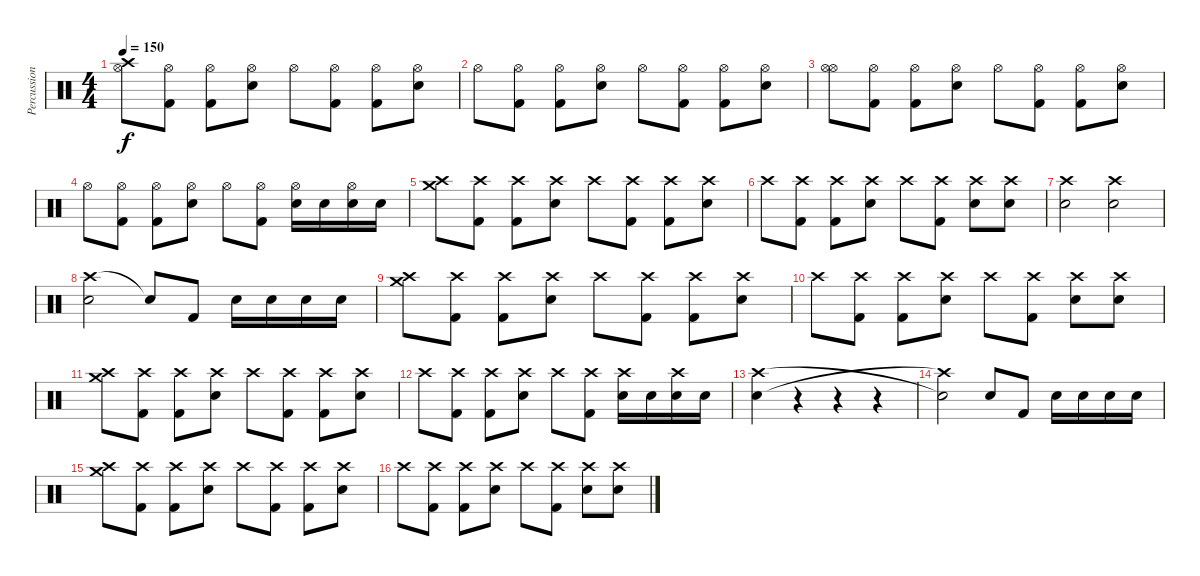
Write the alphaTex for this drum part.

\track ("Percussioni" "Percussion") {instrument percussion}
\staff {score}
\articulation defaults
\ts (4 4)
\tempo 150
\clef neutral
\ks c
("Hi-Hat (open)" "Crash high (hit)").8{dy f} ("Hi-Hat (open)" "Kick (hit) 2").8 ("Hi-Hat (open)" "Kick (hit) 2").8 ("Hi-Hat (open)" "Snare (hit) 2").8 "Hi-Hat (open)".8 ("Hi-Hat (open)" "Kick (hit) 2").8 ("Hi-Hat (open)" "Kick (hit) 2").8 ("Hi-Hat (open)" "Snare (hit) 2").8 |
"Hi-Hat (open)".8 ("Hi-Hat (open)" "Kick (hit) 2").8 ("Hi-Hat (open)" "Kick (hit) 2").8 ("Hi-Hat (open)" "Snare (hit) 2").8 "Hi-Hat (open)".8 ("Hi-Hat (open)" "Kick (hit) 2").8 ("Hi-Hat (open)" "Kick (hit) 2").8 ("Hi-Hat (open)" "Snare (hit) 2").8 |
("Hi-Hat (open)" "Hi-Hat (open)").8 ("Hi-Hat (open)" "Kick (hit) 2").8 ("Hi-Hat (open)" "Kick (hit) 2").8 ("Hi-Hat (open)" "Snare (hit) 2").8 "Hi-Hat (open)".8 ("Hi-Hat (open)" "Kick (hit) 2").8 ("Hi-Hat (open)" "Kick (hit) 2").8 ("Hi-Hat (open)" "Snare (hit) 2").8 |
"Hi-Hat (open)".8 ("Hi-Hat (open)" "Kick (hit) 2").8 ("Hi-Hat (open)" "Kick (hit) 2").8 ("Hi-Hat (open)" "Snare (hit) 2").8 "Hi-Hat (open)".8 ("Hi-Hat (open)" "Kick (hit) 2").8 ("Hi-Hat (open)" "Snare (hit) 2").16 "Snare (hit) 2".16 ("Hi-Hat (open)" "Snare (hit) 2").16 "Snare (hit) 2".16 |
("Crash high (hit)" "Crash medium (hit)").8 ("Crash high (hit)" "Kick (hit) 2").8 ("Crash high (hit)" "Kick (hit) 2").8 ("Crash high (hit)" "Snare (hit) 2").8 "Crash high (hit)".8 ("Crash high (hit)" "Kick (hit) 2").8 ("Crash high (hit)" "Kick (hit) 2").8 ("Crash high (hit)" "Snare (hit) 2").8 |
"Crash high (hit)".8 ("Crash high (hit)" "Kick (hit) 2").8 ("Crash high (hit)" "Kick (hit) 2").8 ("Crash high (hit)" "Snare (hit) 2").8 "Crash high (hit)".8 ("Crash high (hit)" "Kick (hit) 2").8 ("Crash high (hit)" "Snare (hit) 2").8 ("Crash high (hit)" "Snare (hit) 2").8 |
("Crash high (hit)" "Snare (hit) 2").2 ("Crash high (hit)" "Snare (hit) 2").2 |
("Crash high (hit)" "Snare (hit) 2").2 "Snare (hit)"{t}.8 "Kick (hit) 2".8 "Snare (hit) 2".16 "Snare (hit) 2".16 "Snare (hit) 2".16 "Snare (hit) 2".16 |
("Crash high (hit)" "Crash medium (hit)").8 ("Crash high (hit)" "Kick (hit) 2").8 ("Crash high (hit)" "Kick (hit) 2").8 ("Crash high (hit)" "Snare (hit) 2").8 "Crash high (hit)".8 ("Crash high (hit)" "Kick (hit) 2").8 ("Crash high (hit)" "Kick (hit) 2").8 ("Crash high (hit)" "Snare (hit) 2").8 |
"Crash high (hit)".8 ("Crash high (hit)" "Kick (hit) 2").8 ("Crash high (hit)" "Kick (hit) 2").8 ("Crash high (hit)" "Snare (hit) 2").8 "Crash high (hit)".8 ("Crash high (hit)" "Kick (hit) 2").8 ("Crash high (hit)" "Snare (hit) 2").8 ("Crash high (hit)" "Snare (hit) 2").8 |
("Crash high (hit)" "Crash medium (hit)").8 ("Crash high (hit)" "Kick (hit) 2").8 ("Crash high (hit)" "Kick (hit) 2").8 ("Crash high (hit)" "Snare (hit) 2").8 "Crash high (hit)".8 ("Crash high (hit)" "Kick (hit) 2").8 ("Crash high (hit)" "Kick (hit) 2").8 ("Crash high (hit)" "Snare (hit) 2").8 |
"Crash high (hit)".8 ("Crash high (hit)" "Kick (hit) 2").8 ("Crash high (hit)" "Kick (hit) 2").8 ("Crash high (hit)" "Snare (hit) 2").8 "Crash high (hit)".8 ("Crash high (hit)" "Kick (hit) 2").8 ("Crash high (hit)" "Snare (hit) 2").16 "Snare (hit) 2".16 ("Crash high (hit)" "Snare (hit) 2").16 "Snare (hit) 2".16 |
("Snare (hit) 2" "Crash high (hit)").4 r.4 r.4 r.4 |
("Crash high (hit)"{t} "Snare (hit) 2"{t}).2 "Snare (hit) 2".8 "Kick (hit) 2".8 "Snare (hit) 2".16 "Snare (hit) 2".16 "Snare (hit) 2".16 "Snare (hit) 2".16 |
("Crash high (hit)" "Crash medium (hit)").8 ("Crash high (hit)" "Kick (hit) 2").8 ("Crash high (hit)" "Kick (hit) 2").8 ("Crash high (hit)" "Snare (hit) 2").8 "Crash high (hit)".8 ("Crash high (hit)" "Kick (hit) 2").8 ("Crash high (hit)" "Kick (hit) 2").8 ("Crash high (hit)" "Snare (hit) 2").8 |
"Crash high (hit)".8 ("Crash high (hit)" "Kick (hit) 2").8 ("Crash high (hit)" "Kick (hit) 2").8 ("Crash high (hit)" "Snare (hit) 2").8 "Crash high (hit)".8 ("Crash high (hit)" "Kick (hit) 2").8 ("Crash high (hit)" "Snare (hit) 2").8 ("Crash high (hit)" "Snare (hit) 2").8
